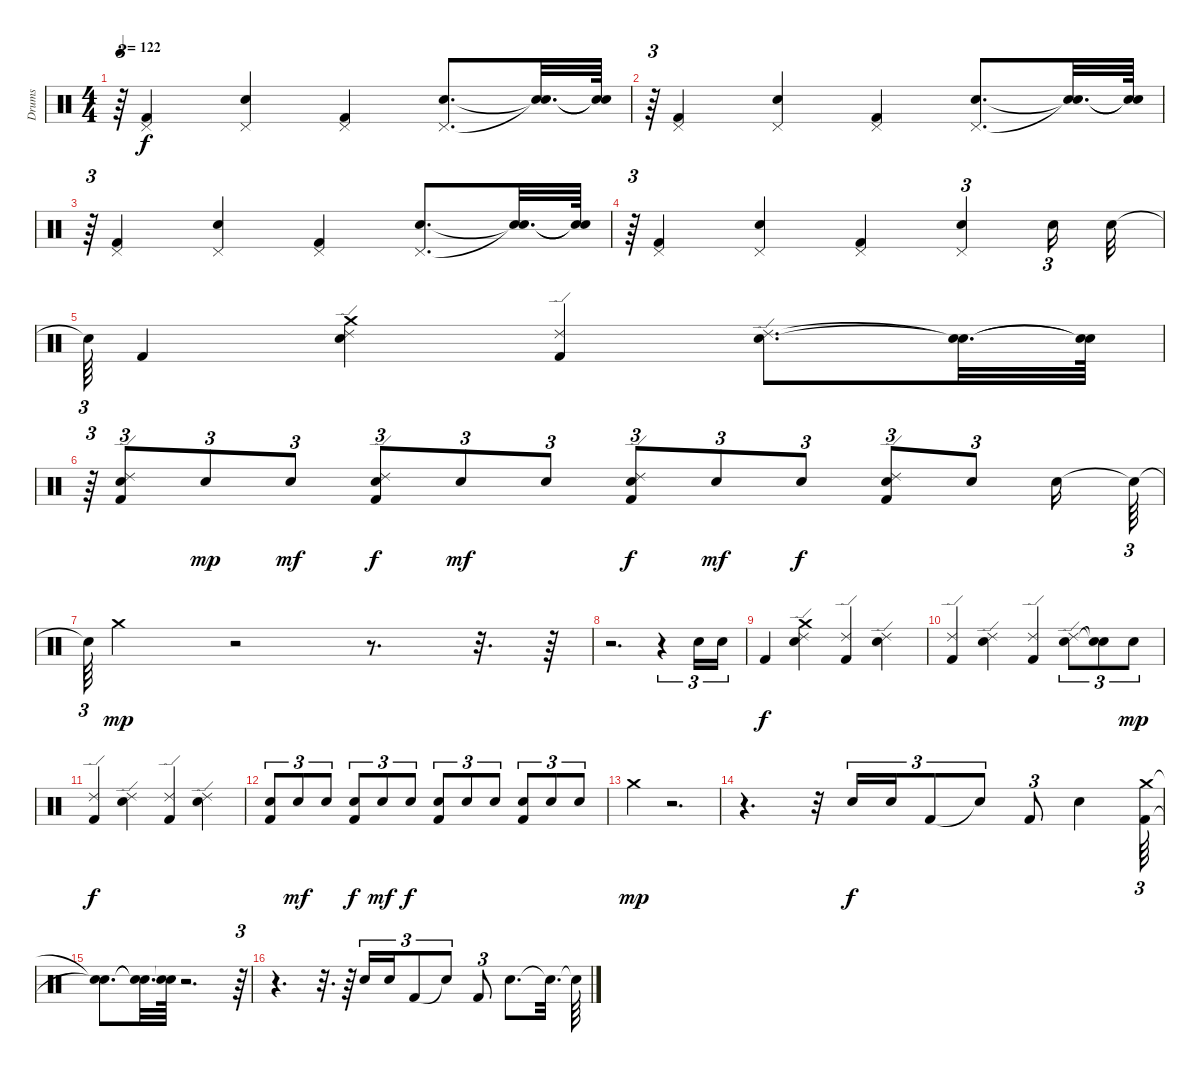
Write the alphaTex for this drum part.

\track ("Drums" "Drums") {instrument percussion}
\staff {score}
\articulation defaults
\ts (4 4)
\tempo 122
\clef neutral
\ks c
r.64{tu (3 2) dy f} ("Kick (hit) 2" "Pedal Hi-Hat (hit)").4 ("Snare (hit) 2" "Pedal Hi-Hat (hit)").4 ("Kick (hit) 2" "Pedal Hi-Hat (hit)").4 ("Snare (hit) 2" "Pedal Hi-Hat (hit)").8{d} ("Snare (hit)"{t} "Snare (hit)"{t}).32{d} ("Snare (hit)"{t} "Snare (hit)"{t}).64 |
r.64{tu (3 2)} ("Kick (hit) 2" "Pedal Hi-Hat (hit)").4 ("Snare (hit) 2" "Pedal Hi-Hat (hit)").4 ("Kick (hit) 2" "Pedal Hi-Hat (hit)").4 ("Snare (hit) 2" "Pedal Hi-Hat (hit)").8{d} ("Snare (hit)"{t} "Snare (hit)"{t}).32{d} ("Snare (hit)"{t} "Snare (hit)"{t}).64 |
r.64{tu (3 2)} ("Kick (hit) 2" "Pedal Hi-Hat (hit)").4 ("Snare (hit) 2" "Pedal Hi-Hat (hit)").4 ("Kick (hit) 2" "Pedal Hi-Hat (hit)").4 ("Snare (hit) 2" "Pedal Hi-Hat (hit)").8{d} ("Snare (hit)"{t} "Snare (hit)"{t}).32{d} ("Snare (hit)"{t} "Snare (hit)"{t}).64 |
r.64{tu (3 2)} ("Kick (hit) 2" "Pedal Hi-Hat (hit)").4 ("Snare (hit) 2" "Pedal Hi-Hat (hit)").4 ("Kick (hit) 2" "Pedal Hi-Hat (hit)").4 ("Snare (hit) 2" "Pedal Hi-Hat (hit)").4{tu (3 2)} "Snare (hit) 2".16{tu (3 2)} "Snare (hit) 2".32 |
"Snare (hit)"{t}.64{tu (3 2)} "Kick (hit) 2".4 ("Snare (hit) 2" "Ride (edge) 2" "Crash medium (hit)").4 ("Kick (hit) 2" "Ride (edge) 2").4 ("Snare (hit) 2" "Ride (edge) 2").8{d} ("Snare (hit)"{t} "Snare (hit)"{t}).32{d} ("Snare (hit)"{t} "Snare (hit)"{t}).64 |
r.64{tu (3 2)} ("Snare (hit) 2" "Kick (hit) 2" "Ride (edge) 2").8{tu (3 2)} "Snare (hit) 2".8{tu (3 2) dy mp} "Snare (hit) 2".8{tu (3 2) dy mf} ("Snare (hit) 2" "Ride (edge) 2" "Kick (hit) 2").8{tu (3 2) dy f} "Snare (hit) 2".8{tu (3 2) dy mf} "Snare (hit) 2".8{tu (3 2)} ("Snare (hit) 2" "Ride (edge) 2" "Kick (hit) 2").8{tu (3 2) dy f} "Snare (hit) 2".8{tu (3 2) dy mf} "Snare (hit) 2".8{tu (3 2) dy f} ("Snare (hit) 2" "Kick (hit) 2" "Ride (edge) 2").8{tu (3 2)} "Snare (hit) 2".8{tu (3 2)} "Snare (hit) 2".16 "Snare (hit)"{t}.64{tu (3 2)} |
"Snare (hit)"{t}.64{tu (3 2)} "Crash medium (hit)".4{dy mp} r.2 r.8{d} r.32{d} r.64 |
r.2{d} r.4{tu (3 2)} "Snare (hit) 2".16{tu (3 2)} "Snare (hit) 2".16{tu (3 2)} |
"Kick (hit) 2".4{dy f} ("Ride (edge) 2" "Crash medium (hit)" "Snare (hit) 2").4 ("Ride (edge) 2" "Kick (hit) 2").4 ("Ride (edge) 2" "Snare (hit) 2").4 |
("Ride (edge) 2" "Kick (hit) 2").4 ("Ride (edge) 2" "Snare (hit) 2").4 ("Ride (edge) 2" "Kick (hit) 2").4 ("Ride (edge) 2" "Snare (hit) 2").8{tu (3 2)} ("Snare (hit)"{t} "Snare (hit)"{t}).8{tu (3 2)} "Snare (hit) 2".8{tu (3 2) dy mp} |
("Ride (edge) 2" "Kick (hit) 2").4{dy f} ("Ride (edge) 2" "Snare (hit) 2").4 ("Ride (edge) 2" "Kick (hit) 2").4 ("Ride (edge) 2" "Snare (hit) 2").4 |
("Snare (hit) 2" "Kick (hit) 2").8{tu (3 2)} "Snare (hit) 2".8{tu (3 2) dy mf} "Snare (hit) 2".8{tu (3 2)} ("Snare (hit) 2" "Kick (hit) 2").8{tu (3 2) dy f} "Snare (hit) 2".8{tu (3 2) dy mf} "Snare (hit) 2".8{tu (3 2) dy f} ("Snare (hit) 2" "Kick (hit) 2").8{tu (3 2)} "Snare (hit) 2".8{tu (3 2)} "Snare (hit) 2".8{tu (3 2)} ("Snare (hit) 2" "Kick (hit) 2").8{tu (3 2)} "Snare (hit) 2".8{tu (3 2)} "Snare (hit) 2".8{tu (3 2)} |
"Crash medium (hit)".4{dy mp} r.2{d} |
r.4{d} r.32 "Snare (hit) 2".16{tu (3 2) dy f} "Snare (hit) 2".16{tu (3 2)} "Kick (hit) 2".8{tu (3 2)} "Snare (hit)"{t}.8{tu (3 2)} "Kick (hit) 2".8{tu (3 2)} "Snare (hit) 2".4 ("Crash medium (hit)" "Kick (hit) 2").64{tu (3 2)} |
("Snare (hit)"{t} "Snare (hit)"{t}).8{d} ("Snare (hit)"{t} "Snare (hit)"{t}).32{d} ("Snare (hit)"{t} "Snare (hit)"{t}).64 r.2{d} r.64{tu (3 2)} |
r.4{d} r.32{d} r.64 "Snare (hit) 2".16{tu (3 2)} "Snare (hit) 2".16{tu (3 2)} "Kick (hit) 2".8{tu (3 2)} "Snare (hit)"{t}.8{tu (3 2)} "Kick (hit) 2".8{tu (3 2)} "Snare (hit) 2".8{d} "Snare (hit)"{t}.32{d} "Snare (hit)"{t}.64
